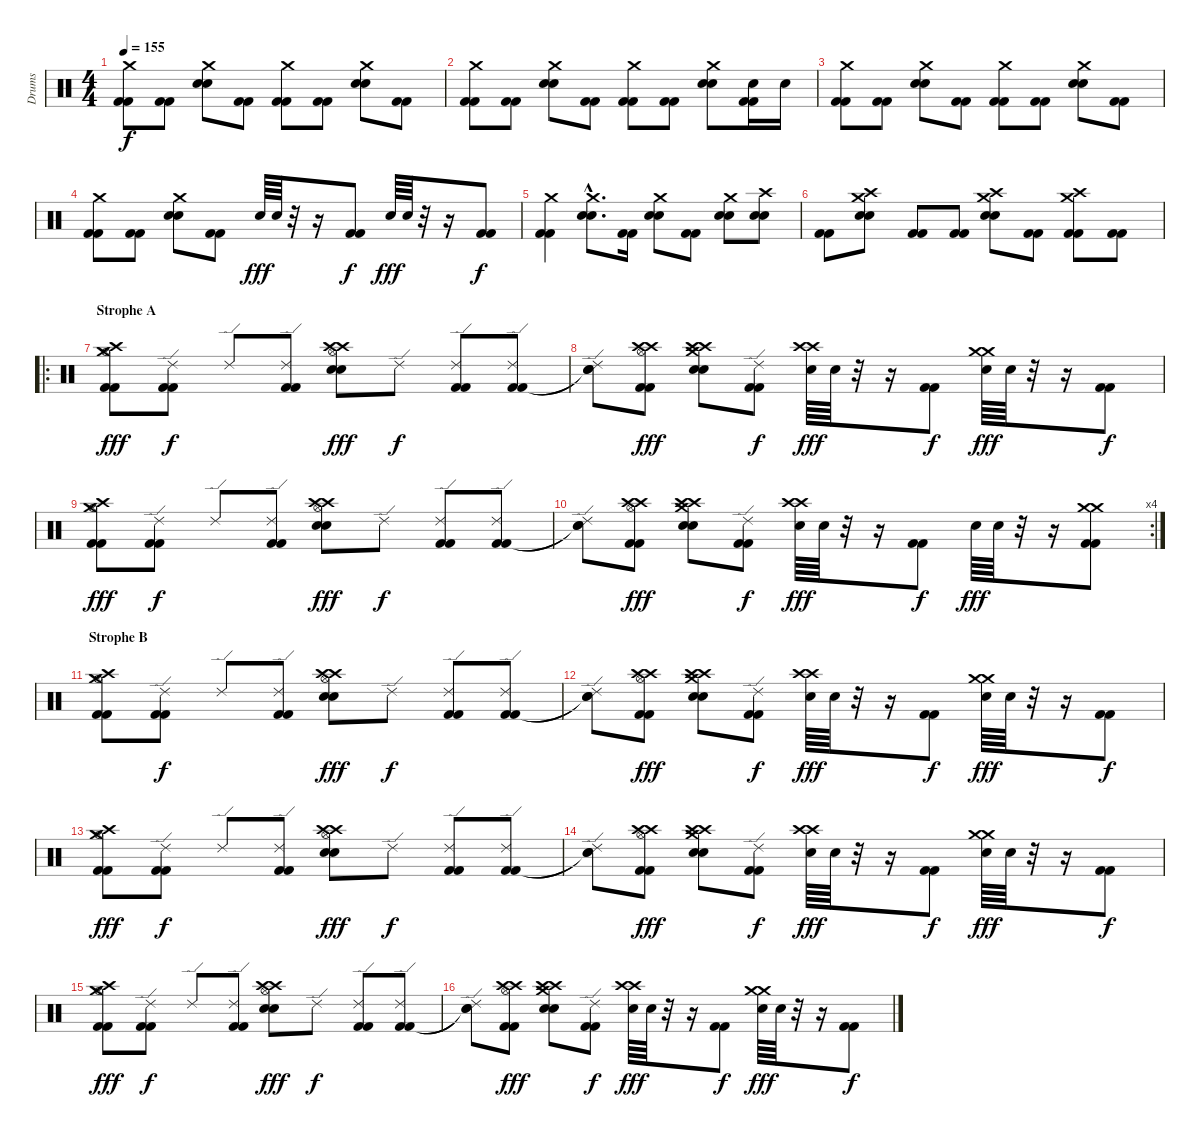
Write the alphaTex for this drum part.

\track ("Drums" "Drums") {instrument percussion}
\staff {score}
\articulation defaults
\ts (4 4)
\tempo 155
\clef neutral
\ks c
("Crash medium (hit)" "Kick (hit) 2" "Kick (hit) 2").8{dy f} ("Kick (hit) 2" "Kick (hit) 2").8 ("Crash medium (hit)" "Snare (hit) 2" "Electric Snare (hit)").8 ("Kick (hit) 2" "Kick (hit) 2").8 ("Crash medium (hit)" "Kick (hit) 2" "Kick (hit) 2").8 ("Kick (hit) 2" "Kick (hit) 2").8 ("Crash medium (hit)" "Snare (hit) 2" "Electric Snare (hit)").8 ("Kick (hit) 2" "Kick (hit) 2").8 |
("Crash medium (hit)" "Kick (hit) 2" "Kick (hit) 2").8 ("Kick (hit) 2" "Kick (hit) 2").8 ("Crash medium (hit)" "Snare (hit) 2" "Electric Snare (hit)").8 ("Kick (hit) 2" "Kick (hit) 2").8 ("Crash medium (hit)" "Kick (hit) 2" "Kick (hit) 2").8 ("Kick (hit) 2" "Kick (hit) 2").8 ("Crash medium (hit)" "Snare (hit) 2" "Electric Snare (hit)").8 ("Electric Snare (hit)" "Kick (hit) 2" "Kick (hit) 2").16 "Electric Snare (hit)".16 |
("Crash medium (hit)" "Kick (hit) 2" "Kick (hit) 2").8 ("Kick (hit) 2" "Kick (hit) 2").8 ("Crash medium (hit)" "Snare (hit) 2" "Electric Snare (hit)").8 ("Kick (hit) 2" "Kick (hit) 2").8 ("Crash medium (hit)" "Kick (hit) 2" "Kick (hit) 2").8 ("Kick (hit) 2" "Kick (hit) 2").8 ("Crash medium (hit)" "Snare (hit) 2" "Electric Snare (hit)").8 ("Kick (hit) 2" "Kick (hit) 2").8 |
("Crash medium (hit)" "Kick (hit) 2" "Kick (hit) 2").8 ("Kick (hit) 2" "Kick (hit) 2").8 ("Crash medium (hit)" "Snare (hit) 2" "Electric Snare (hit)").8 ("Kick (hit) 2" "Kick (hit) 2").8 "Snare (hit) 2".64{dy fff} "Electric Snare (hit)".64 r.32 r.16 ("Kick (hit) 2" "Kick (hit) 2").8{dy f} "Snare (hit) 2".64{dy fff} "Electric Snare (hit)".64 r.32 r.16 ("Kick (hit) 2" "Kick (hit) 2").8{dy f} |
("Crash medium (hit)" "Kick (hit) 2" "Kick (hit) 2").4 ("Crash medium (hit)"{hac} "Snare (hit) 2"{hac} "Electric Snare (hit)"{hac}).8{d} ("Kick (hit) 2" "Kick (hit) 2").16 ("Crash medium (hit)" "Snare (hit) 2" "Electric Snare (hit)").8 ("Kick (hit) 2" "Kick (hit) 2").8 ("Crash medium (hit)" "Snare (hit) 2" "Electric Snare (hit)").8 ("Crash high (hit)" "Snare (hit) 2" "Electric Snare (hit)").8 |
("Kick (hit) 2" "Kick (hit) 2").8 ("Crash high (hit)" "Crash medium (hit)" "Snare (hit) 2" "Electric Snare (hit)").8 ("Kick (hit) 2" "Kick (hit) 2").8 ("Kick (hit) 2" "Kick (hit) 2").8 ("Crash high (hit)" "Crash medium (hit)" "Snare (hit) 2" "Electric Snare (hit)").8 ("Kick (hit) 2" "Kick (hit) 2").8 ("Crash medium (hit)" "Crash high (hit)" "Kick (hit) 2" "Kick (hit) 2").8 ("Kick (hit) 2" "Kick (hit) 2").8 |
\ro
\section ("" "Strophe A")
("Crash high (hit)" "Crash medium (hit)" "Hi-Hat (open)" "Kick (hit) 2" "Kick (hit) 2").8{dy fff} ("Ride (edge) 2" "Kick (hit) 2" "Kick (hit) 2").8{dy f} "Ride (edge) 2".8 ("Ride (edge) 2" "Kick (hit) 2" "Kick (hit) 2").8 ("Crash high (hit)" "Crash high (hit)" "Hi-Hat (open)" "Snare (hit) 2" "Electric Snare (hit)").8{dy fff} "Ride (edge) 2".8{dy f} ("Ride (edge) 2" "Kick (hit) 2" "Kick (hit) 2").8 ("Ride (edge) 2" "Kick (hit) 2" "Kick (hit) 2").8 |
("Ride (edge) 2" "Snare (hit)"{t} "Snare (hit)"{t}).8 ("Crash high (hit)" "Crash high (hit)" "Hi-Hat (open)" "Kick (hit) 2" "Kick (hit) 2").8{dy fff} ("Crash high (hit)" "Crash high (hit)" "Crash medium (hit)" "Electric Snare (hit)" "Snare (hit) 2").8 ("Ride (edge) 2" "Kick (hit) 2" "Kick (hit) 2").8{dy f} ("Crash high (hit)" "Crash high (hit)" "Snare (hit) 2").64{dy fff} "Electric Snare (hit)".64 r.32 r.16 ("Kick (hit) 2" "Kick (hit) 2").8{dy f} ("Crash medium (hit)" "Crash medium (hit)" "Snare (hit) 2").64{dy fff} "Electric Snare (hit)".64 r.32 r.16 ("Kick (hit) 2" "Kick (hit) 2").8{dy f} |
("Crash high (hit)" "Crash medium (hit)" "Hi-Hat (open)" "Kick (hit) 2" "Kick (hit) 2").8{dy fff} ("Ride (edge) 2" "Kick (hit) 2" "Kick (hit) 2").8{dy f} "Ride (edge) 2".8 ("Ride (edge) 2" "Kick (hit) 2" "Kick (hit) 2").8 ("Crash high (hit)" "Crash high (hit)" "Hi-Hat (open)" "Snare (hit) 2" "Electric Snare (hit)").8{dy fff} "Ride (edge) 2".8{dy f} ("Ride (edge) 2" "Kick (hit) 2" "Kick (hit) 2").8 ("Ride (edge) 2" "Kick (hit) 2" "Kick (hit) 2").8 |
\rc 4
("Ride (edge) 2" "Snare (hit)"{t} "Snare (hit)"{t}).8 ("Crash high (hit)" "Crash high (hit)" "Hi-Hat (open)" "Kick (hit) 2" "Kick (hit) 2").8{dy fff} ("Crash high (hit)" "Crash high (hit)" "Crash medium (hit)" "Electric Snare (hit)" "Snare (hit) 2").8 ("Ride (edge) 2" "Kick (hit) 2" "Kick (hit) 2").8{dy f} ("Crash high (hit)" "Crash high (hit)" "Snare (hit) 2").64{dy fff} "Electric Snare (hit)".64 r.32 r.16 ("Kick (hit) 2" "Kick (hit) 2").8{dy f} "Snare (hit) 2".64{dy fff} "Electric Snare (hit)".64 r.32 r.16 ("Crash medium (hit)" "Crash medium (hit)" "Kick (hit) 2" "Kick (hit) 2").8 |
\section ("" "Strophe B")
("Crash high (hit)" "Crash medium (hit)" "Hi-Hat (open)" "Kick (hit) 2" "Kick (hit) 2").8 ("Ride (edge) 2" "Kick (hit) 2" "Kick (hit) 2").8{dy f} "Ride (edge) 2".8 ("Ride (edge) 2" "Kick (hit) 2" "Kick (hit) 2").8 ("Crash high (hit)" "Crash high (hit)" "Hi-Hat (open)" "Snare (hit) 2" "Electric Snare (hit)").8{dy fff} "Ride (edge) 2".8{dy f} ("Ride (edge) 2" "Kick (hit) 2" "Kick (hit) 2").8 ("Ride (edge) 2" "Kick (hit) 2" "Kick (hit) 2").8 |
("Ride (edge) 2" "Snare (hit)"{t} "Snare (hit)"{t}).8 ("Crash high (hit)" "Crash high (hit)" "Hi-Hat (open)" "Kick (hit) 2" "Kick (hit) 2").8{dy fff} ("Crash high (hit)" "Crash high (hit)" "Crash medium (hit)" "Electric Snare (hit)" "Snare (hit) 2").8 ("Ride (edge) 2" "Kick (hit) 2" "Kick (hit) 2").8{dy f} ("Crash high (hit)" "Crash high (hit)" "Snare (hit) 2").64{dy fff} "Electric Snare (hit)".64 r.32 r.16 ("Kick (hit) 2" "Kick (hit) 2").8{dy f} ("Crash medium (hit)" "Crash medium (hit)" "Snare (hit) 2").64{dy fff} "Electric Snare (hit)".64 r.32 r.16 ("Kick (hit) 2" "Kick (hit) 2").8{dy f} |
("Crash high (hit)" "Crash medium (hit)" "Hi-Hat (open)" "Kick (hit) 2" "Kick (hit) 2").8{dy fff} ("Ride (edge) 2" "Kick (hit) 2" "Kick (hit) 2").8{dy f} "Ride (edge) 2".8 ("Ride (edge) 2" "Kick (hit) 2" "Kick (hit) 2").8 ("Crash high (hit)" "Crash high (hit)" "Hi-Hat (open)" "Snare (hit) 2" "Electric Snare (hit)").8{dy fff} "Ride (edge) 2".8{dy f} ("Ride (edge) 2" "Kick (hit) 2" "Kick (hit) 2").8 ("Ride (edge) 2" "Kick (hit) 2" "Kick (hit) 2").8 |
("Ride (edge) 2" "Snare (hit)"{t} "Snare (hit)"{t}).8 ("Crash high (hit)" "Crash high (hit)" "Hi-Hat (open)" "Kick (hit) 2" "Kick (hit) 2").8{dy fff} ("Crash high (hit)" "Crash high (hit)" "Crash medium (hit)" "Electric Snare (hit)" "Snare (hit) 2").8 ("Ride (edge) 2" "Kick (hit) 2" "Kick (hit) 2").8{dy f} ("Crash high (hit)" "Crash high (hit)" "Snare (hit) 2").64{dy fff} "Electric Snare (hit)".64 r.32 r.16 ("Kick (hit) 2" "Kick (hit) 2").8{dy f} ("Crash medium (hit)" "Crash medium (hit)" "Snare (hit) 2").64{dy fff} "Electric Snare (hit)".64 r.32 r.16 ("Kick (hit) 2" "Kick (hit) 2").8{dy f} |
("Crash high (hit)" "Crash medium (hit)" "Hi-Hat (open)" "Kick (hit) 2" "Kick (hit) 2").8{dy fff} ("Ride (edge) 2" "Kick (hit) 2" "Kick (hit) 2").8{dy f} "Ride (edge) 2".8 ("Ride (edge) 2" "Kick (hit) 2" "Kick (hit) 2").8 ("Crash high (hit)" "Crash high (hit)" "Hi-Hat (open)" "Snare (hit) 2" "Electric Snare (hit)").8{dy fff} "Ride (edge) 2".8{dy f} ("Ride (edge) 2" "Kick (hit) 2" "Kick (hit) 2").8 ("Ride (edge) 2" "Kick (hit) 2" "Kick (hit) 2").8 |
("Ride (edge) 2" "Snare (hit)"{t} "Snare (hit)"{t}).8 ("Crash high (hit)" "Crash high (hit)" "Hi-Hat (open)" "Kick (hit) 2" "Kick (hit) 2").8{dy fff} ("Crash high (hit)" "Crash high (hit)" "Crash medium (hit)" "Electric Snare (hit)" "Snare (hit) 2").8 ("Ride (edge) 2" "Kick (hit) 2" "Kick (hit) 2").8{dy f} ("Crash high (hit)" "Crash high (hit)" "Snare (hit) 2").64{dy fff} "Electric Snare (hit)".64 r.32 r.16 ("Kick (hit) 2" "Kick (hit) 2").8{dy f} ("Crash medium (hit)" "Crash medium (hit)" "Snare (hit) 2").64{dy fff} "Electric Snare (hit)".64 r.32 r.16 ("Kick (hit) 2" "Kick (hit) 2").8{dy f}
